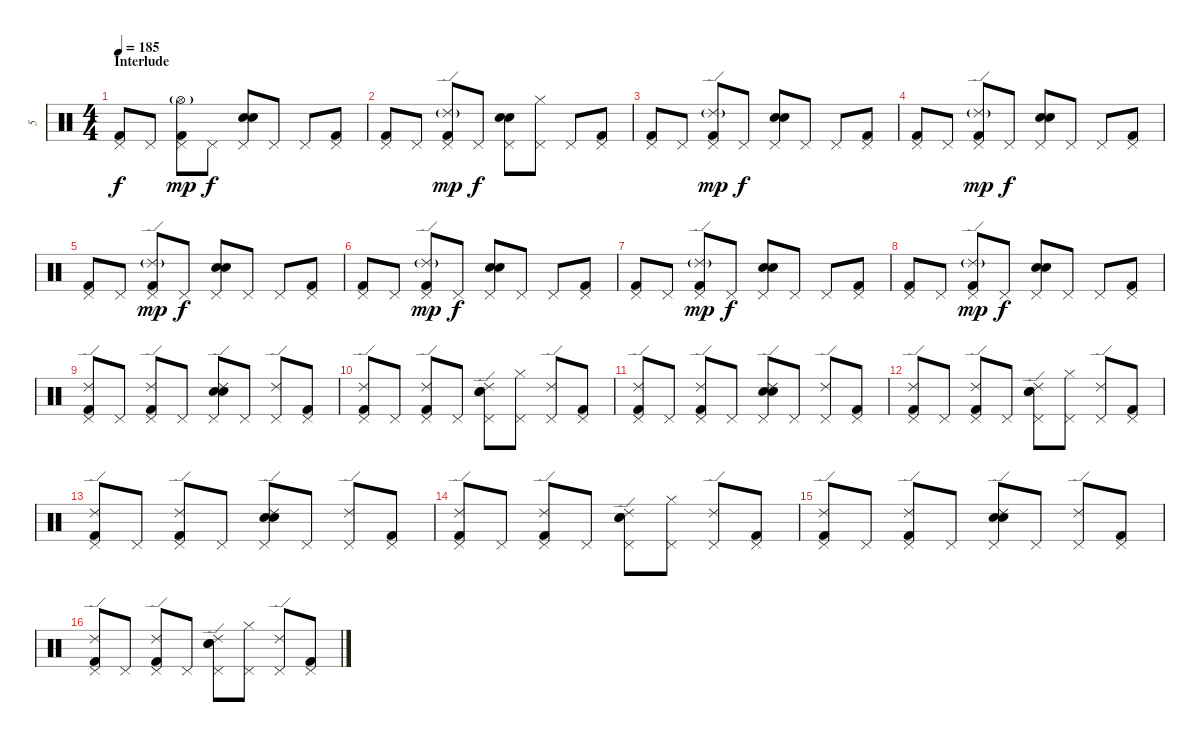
\track ("5" "5") {instrument percussion}
\staff {score}
\articulation defaults
\ts (4 4)
\section ("" "Interlude")
\tempo 185
\clef neutral
\ks c
("Pedal Hi-Hat (hit)" "Kick (hit) 2").8{dy f} "Pedal Hi-Hat (hit)".8 ("Pedal Hi-Hat (hit)" "Hi-Hat (open)"{g} "Kick (hit) 2").8{dy mp} "Pedal Hi-Hat (hit)".8{dy f} ("Pedal Hi-Hat (hit)" "Electric Snare (hit)" "Snare (hit) 2").8 "Pedal Hi-Hat (hit)".8 "Pedal Hi-Hat (hit)".8 ("Pedal Hi-Hat (hit)" "Kick (hit) 2").8 |
("Pedal Hi-Hat (hit)" "Kick (hit) 2").8 "Pedal Hi-Hat (hit)".8 ("Pedal Hi-Hat (hit)" "Ride (edge) 2"{g} "Kick (hit) 2").8{dy mp} "Pedal Hi-Hat (hit)".8{dy f} ("Pedal Hi-Hat (hit)" "Electric Snare (hit)" "Snare (hit) 2").8 ("Pedal Hi-Hat (hit)" "Hi-Hat (closed)").8 "Pedal Hi-Hat (hit)".8 ("Pedal Hi-Hat (hit)" "Kick (hit) 2").8 |
("Pedal Hi-Hat (hit)" "Kick (hit) 2").8 "Pedal Hi-Hat (hit)".8 ("Pedal Hi-Hat (hit)" "Ride (edge) 2"{g} "Kick (hit) 2").8{dy mp} "Pedal Hi-Hat (hit)".8{dy f} ("Pedal Hi-Hat (hit)" "Electric Snare (hit)" "Snare (hit) 2").8 "Pedal Hi-Hat (hit)".8 "Pedal Hi-Hat (hit)".8 ("Pedal Hi-Hat (hit)" "Kick (hit) 2").8 |
("Pedal Hi-Hat (hit)" "Kick (hit) 2").8 "Pedal Hi-Hat (hit)".8 ("Pedal Hi-Hat (hit)" "Ride (edge) 2"{g} "Kick (hit) 2").8{dy mp} "Pedal Hi-Hat (hit)".8{dy f} ("Pedal Hi-Hat (hit)" "Electric Snare (hit)" "Snare (hit) 2").8 "Pedal Hi-Hat (hit)".8 "Pedal Hi-Hat (hit)".8 ("Pedal Hi-Hat (hit)" "Kick (hit) 2").8 |
("Pedal Hi-Hat (hit)" "Kick (hit) 2").8 "Pedal Hi-Hat (hit)".8 ("Pedal Hi-Hat (hit)" "Ride (edge) 2"{g} "Kick (hit) 2").8{dy mp} "Pedal Hi-Hat (hit)".8{dy f} ("Pedal Hi-Hat (hit)" "Electric Snare (hit)" "Snare (hit) 2").8 "Pedal Hi-Hat (hit)".8 "Pedal Hi-Hat (hit)".8 ("Pedal Hi-Hat (hit)" "Kick (hit) 2").8 |
("Pedal Hi-Hat (hit)" "Kick (hit) 2").8 "Pedal Hi-Hat (hit)".8 ("Pedal Hi-Hat (hit)" "Ride (edge) 2"{g} "Kick (hit) 2").8{dy mp} "Pedal Hi-Hat (hit)".8{dy f} ("Pedal Hi-Hat (hit)" "Electric Snare (hit)" "Snare (hit) 2").8 "Pedal Hi-Hat (hit)".8 "Pedal Hi-Hat (hit)".8 ("Pedal Hi-Hat (hit)" "Kick (hit) 2").8 |
("Pedal Hi-Hat (hit)" "Kick (hit) 2").8 "Pedal Hi-Hat (hit)".8 ("Pedal Hi-Hat (hit)" "Ride (edge) 2"{g} "Kick (hit) 2").8{dy mp} "Pedal Hi-Hat (hit)".8{dy f} ("Pedal Hi-Hat (hit)" "Electric Snare (hit)" "Snare (hit) 2").8 "Pedal Hi-Hat (hit)".8 "Pedal Hi-Hat (hit)".8 ("Pedal Hi-Hat (hit)" "Kick (hit) 2").8 |
("Pedal Hi-Hat (hit)" "Kick (hit) 2").8 "Pedal Hi-Hat (hit)".8 ("Pedal Hi-Hat (hit)" "Ride (edge) 2"{g} "Kick (hit) 2").8{dy mp} "Pedal Hi-Hat (hit)".8{dy f} ("Pedal Hi-Hat (hit)" "Electric Snare (hit)" "Snare (hit) 2").8 "Pedal Hi-Hat (hit)".8 "Pedal Hi-Hat (hit)".8 ("Pedal Hi-Hat (hit)" "Kick (hit) 2").8 |
("Pedal Hi-Hat (hit)" "Ride (edge) 2" "Kick (hit) 2").8 "Pedal Hi-Hat (hit)".8 ("Pedal Hi-Hat (hit)" "Ride (edge) 2" "Kick (hit) 2").8 "Pedal Hi-Hat (hit)".8 ("Pedal Hi-Hat (hit)" "Ride (edge) 2" "Electric Snare (hit)" "Snare (hit) 2").8 "Pedal Hi-Hat (hit)".8 ("Pedal Hi-Hat (hit)" "Ride (edge) 2").8 ("Pedal Hi-Hat (hit)" "Kick (hit) 2").8 |
("Pedal Hi-Hat (hit)" "Ride (edge) 2" "Kick (hit) 2").8 "Pedal Hi-Hat (hit)".8 ("Pedal Hi-Hat (hit)" "Ride (edge) 2" "Kick (hit) 2").8 "Pedal Hi-Hat (hit)".8 ("Pedal Hi-Hat (hit)" "Ride (edge) 2" "Electric Snare (hit)" "Snare (hit) 2").8 ("Pedal Hi-Hat (hit)" "Hi-Hat (closed)").8 ("Pedal Hi-Hat (hit)" "Ride (edge) 2").8 ("Pedal Hi-Hat (hit)" "Kick (hit) 2").8 |
("Pedal Hi-Hat (hit)" "Ride (edge) 2" "Kick (hit) 2").8 "Pedal Hi-Hat (hit)".8 ("Pedal Hi-Hat (hit)" "Ride (edge) 2" "Kick (hit) 2").8 "Pedal Hi-Hat (hit)".8 ("Pedal Hi-Hat (hit)" "Ride (edge) 2" "Electric Snare (hit)" "Snare (hit) 2").8 "Pedal Hi-Hat (hit)".8 ("Pedal Hi-Hat (hit)" "Ride (edge) 2").8 ("Pedal Hi-Hat (hit)" "Kick (hit) 2").8 |
("Pedal Hi-Hat (hit)" "Ride (edge) 2" "Kick (hit) 2").8 "Pedal Hi-Hat (hit)".8 ("Pedal Hi-Hat (hit)" "Ride (edge) 2" "Kick (hit) 2").8 "Pedal Hi-Hat (hit)".8 ("Pedal Hi-Hat (hit)" "Ride (edge) 2" "Electric Snare (hit)" "Snare (hit) 2").8 ("Pedal Hi-Hat (hit)" "Hi-Hat (closed)").8 ("Pedal Hi-Hat (hit)" "Ride (edge) 2").8 ("Pedal Hi-Hat (hit)" "Kick (hit) 2").8 |
("Pedal Hi-Hat (hit)" "Ride (edge) 2" "Kick (hit) 2").8 "Pedal Hi-Hat (hit)".8 ("Pedal Hi-Hat (hit)" "Ride (edge) 2" "Kick (hit) 2").8 "Pedal Hi-Hat (hit)".8 ("Pedal Hi-Hat (hit)" "Ride (edge) 2" "Electric Snare (hit)" "Snare (hit) 2").8 "Pedal Hi-Hat (hit)".8 ("Pedal Hi-Hat (hit)" "Ride (edge) 2").8 ("Pedal Hi-Hat (hit)" "Kick (hit) 2").8 |
("Pedal Hi-Hat (hit)" "Ride (edge) 2" "Kick (hit) 2").8 "Pedal Hi-Hat (hit)".8 ("Pedal Hi-Hat (hit)" "Ride (edge) 2" "Kick (hit) 2").8 "Pedal Hi-Hat (hit)".8 ("Pedal Hi-Hat (hit)" "Ride (edge) 2" "Electric Snare (hit)" "Snare (hit) 2").8 ("Pedal Hi-Hat (hit)" "Hi-Hat (closed)").8 ("Pedal Hi-Hat (hit)" "Ride (edge) 2").8 ("Pedal Hi-Hat (hit)" "Kick (hit) 2").8 |
("Pedal Hi-Hat (hit)" "Ride (edge) 2" "Kick (hit) 2").8 "Pedal Hi-Hat (hit)".8 ("Pedal Hi-Hat (hit)" "Ride (edge) 2" "Kick (hit) 2").8 "Pedal Hi-Hat (hit)".8 ("Pedal Hi-Hat (hit)" "Ride (edge) 2" "Electric Snare (hit)" "Snare (hit) 2").8 "Pedal Hi-Hat (hit)".8 ("Pedal Hi-Hat (hit)" "Ride (edge) 2").8 ("Pedal Hi-Hat (hit)" "Kick (hit) 2").8 |
("Pedal Hi-Hat (hit)" "Ride (edge) 2" "Kick (hit) 2").8 "Pedal Hi-Hat (hit)".8 ("Pedal Hi-Hat (hit)" "Ride (edge) 2" "Kick (hit) 2").8 "Pedal Hi-Hat (hit)".8 ("Pedal Hi-Hat (hit)" "Ride (edge) 2" "Electric Snare (hit)" "Snare (hit) 2").8 ("Pedal Hi-Hat (hit)" "Hi-Hat (closed)").8 ("Pedal Hi-Hat (hit)" "Ride (edge) 2").8 ("Pedal Hi-Hat (hit)" "Kick (hit) 2").8
